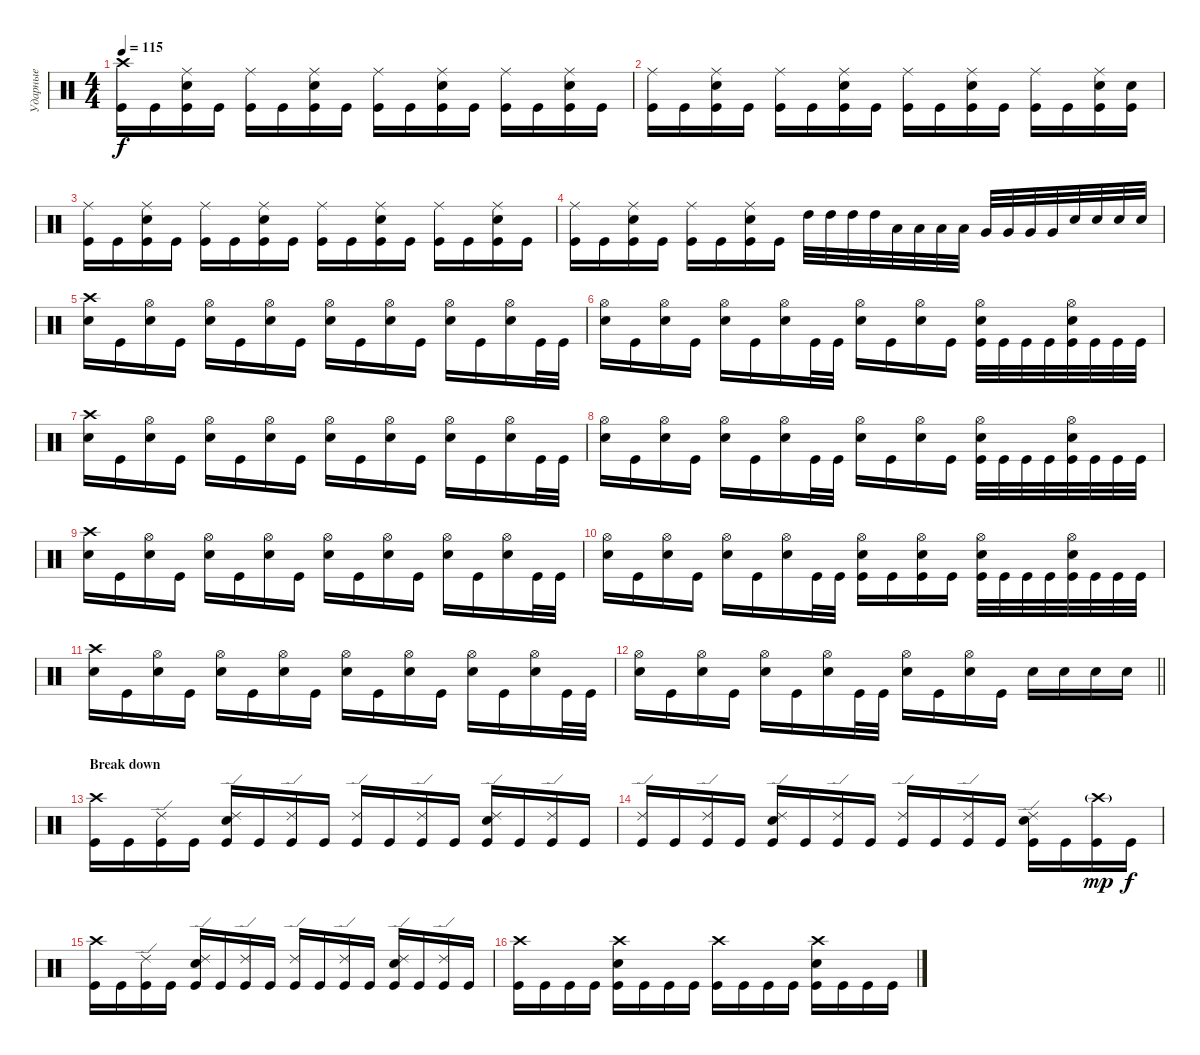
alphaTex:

\track ("Ударные" "Ударные") {instrument percussion}
\staff {score}
\articulation defaults
\ts (4 4)
\tempo 115
\clef neutral
\ks c
("Crash high (hit)" "Kick (hit)").16{dy f} "Kick (hit)".16 ("Ride (middle)" "Snare (hit) 2" "Kick (hit)").16 "Kick (hit)".16 ("Ride (middle)" "Kick (hit)").16 "Kick (hit)".16 ("Ride (middle)" "Snare (hit) 2" "Kick (hit)").16 "Kick (hit)".16 ("Ride (middle)" "Kick (hit)").16 "Kick (hit)".16 ("Ride (middle)" "Snare (hit) 2" "Kick (hit)").16 "Kick (hit)".16 ("Ride (middle)" "Kick (hit)").16 "Kick (hit)".16 ("Ride (middle)" "Snare (hit) 2" "Kick (hit)").16 "Kick (hit)".16 |
("Ride (middle)" "Kick (hit)").16 "Kick (hit)".16 ("Ride (middle)" "Snare (hit) 2" "Kick (hit)").16 "Kick (hit)".16 ("Ride (middle)" "Kick (hit)").16 "Kick (hit)".16 ("Ride (middle)" "Snare (hit) 2" "Kick (hit)").16 "Kick (hit)".16 ("Ride (middle)" "Kick (hit)").16 "Kick (hit)".16 ("Ride (middle)" "Snare (hit) 2" "Kick (hit)").16 "Kick (hit)".16 ("Ride (middle)" "Kick (hit)").16 "Kick (hit)".16 ("Ride (middle)" "Snare (hit) 2" "Kick (hit)").16 ("Snare (hit) 2" "Kick (hit)").16 |
("Ride (middle)" "Kick (hit)").16 "Kick (hit)".16 ("Ride (middle)" "Snare (hit) 2" "Kick (hit)").16 "Kick (hit)".16 ("Ride (middle)" "Kick (hit)").16 "Kick (hit)".16 ("Ride (middle)" "Snare (hit) 2" "Kick (hit)").16 "Kick (hit)".16 ("Ride (middle)" "Kick (hit)").16 "Kick (hit)".16 ("Ride (middle)" "Snare (hit) 2" "Kick (hit)").16 "Kick (hit)".16 ("Ride (middle)" "Kick (hit)").16 "Kick (hit)".16 ("Ride (middle)" "Snare (hit) 2" "Kick (hit)").16 "Kick (hit)".16 |
("Ride (middle)" "Kick (hit)").16 "Kick (hit)".16 ("Ride (middle)" "Snare (hit) 2" "Kick (hit)").16 "Kick (hit)".16 ("Ride (middle)" "Kick (hit)").16 "Kick (hit)".16 ("Ride (middle)" "Snare (hit) 2" "Kick (hit)").16 "Kick (hit)".16 "High Tom (hit)".32 "High Tom (hit)".32 "High Tom (hit)".32 "High Tom (hit)".32 "Low Tom (hit)".32 "Low Tom (hit)".32 "Low Tom (hit)".32 "Low Tom (hit)".32 "Very Low Tom (hit)".32 "Very Low Tom (hit)".32 "Very Low Tom (hit)".32 "Very Low Tom (hit)".32 "Snare (hit) 2".32 "Snare (hit) 2".32 "Snare (hit) 2".32 "Snare (hit) 2".32 |
("Crash high (hit)" "Snare (hit) 2").16 "Kick (hit)".16 ("Hi-Hat (open)" "Snare (hit) 2").16 "Kick (hit)".16 ("Hi-Hat (open)" "Snare (hit) 2").16 "Kick (hit)".16 ("Hi-Hat (open)" "Snare (hit) 2").16 "Kick (hit)".16 ("Hi-Hat (open)" "Snare (hit) 2").16 "Kick (hit)".16 ("Hi-Hat (open)" "Snare (hit) 2").16 "Kick (hit)".16 ("Hi-Hat (open)" "Snare (hit) 2").16 "Kick (hit)".16 ("Hi-Hat (open)" "Snare (hit) 2").16 "Kick (hit)".32 "Kick (hit)".32 |
("Hi-Hat (open)" "Snare (hit) 2").16 "Kick (hit)".16 ("Hi-Hat (open)" "Snare (hit) 2").16 "Kick (hit)".16 ("Hi-Hat (open)" "Snare (hit) 2").16 "Kick (hit)".16 ("Hi-Hat (open)" "Snare (hit) 2").16 "Kick (hit)".32 "Kick (hit)".32 ("Hi-Hat (open)" "Snare (hit) 2").16 "Kick (hit)".16 ("Hi-Hat (open)" "Snare (hit) 2").16 "Kick (hit)".16 ("Hi-Hat (open)" "Snare (hit) 2" "Kick (hit)").32 "Kick (hit)".32 "Kick (hit)".32 "Kick (hit)".32 ("Hi-Hat (open)" "Snare (hit) 2" "Kick (hit)").32 "Kick (hit)".32 "Kick (hit)".32 "Kick (hit)".32 |
("Crash high (hit)" "Snare (hit) 2").16 "Kick (hit)".16 ("Hi-Hat (open)" "Snare (hit) 2").16 "Kick (hit)".16 ("Hi-Hat (open)" "Snare (hit) 2").16 "Kick (hit)".16 ("Hi-Hat (open)" "Snare (hit) 2").16 "Kick (hit)".16 ("Hi-Hat (open)" "Snare (hit) 2").16 "Kick (hit)".16 ("Hi-Hat (open)" "Snare (hit) 2").16 "Kick (hit)".16 ("Hi-Hat (open)" "Snare (hit) 2").16 "Kick (hit)".16 ("Hi-Hat (open)" "Snare (hit) 2").16 "Kick (hit)".32 "Kick (hit)".32 |
("Hi-Hat (open)" "Snare (hit) 2").16 "Kick (hit)".16 ("Hi-Hat (open)" "Snare (hit) 2").16 "Kick (hit)".16 ("Hi-Hat (open)" "Snare (hit) 2").16 "Kick (hit)".16 ("Hi-Hat (open)" "Snare (hit) 2").16 "Kick (hit)".32 "Kick (hit)".32 ("Hi-Hat (open)" "Snare (hit) 2").16 "Kick (hit)".16 ("Hi-Hat (open)" "Snare (hit) 2").16 "Kick (hit)".16 ("Hi-Hat (open)" "Snare (hit) 2" "Kick (hit)").32 "Kick (hit)".32 "Kick (hit)".32 "Kick (hit)".32 ("Hi-Hat (open)" "Snare (hit) 2" "Kick (hit)").32 "Kick (hit)".32 "Kick (hit)".32 "Kick (hit)".32 |
("Crash high (hit)" "Snare (hit) 2").16 "Kick (hit)".16 ("Hi-Hat (open)" "Snare (hit) 2").16 "Kick (hit)".16 ("Hi-Hat (open)" "Snare (hit) 2").16 "Kick (hit)".16 ("Hi-Hat (open)" "Snare (hit) 2").16 "Kick (hit)".16 ("Hi-Hat (open)" "Snare (hit) 2").16 "Kick (hit)".16 ("Hi-Hat (open)" "Snare (hit) 2").16 "Kick (hit)".16 ("Hi-Hat (open)" "Snare (hit) 2").16 "Kick (hit)".16 ("Hi-Hat (open)" "Snare (hit) 2").16 "Kick (hit)".32 "Kick (hit)".32 |
("Hi-Hat (open)" "Snare (hit) 2").16 "Kick (hit)".16 ("Hi-Hat (open)" "Snare (hit) 2").16 "Kick (hit)".16 ("Hi-Hat (open)" "Snare (hit) 2").16 "Kick (hit)".16 ("Hi-Hat (open)" "Snare (hit) 2").16 "Kick (hit)".32 "Kick (hit)".32 ("Hi-Hat (open)" "Snare (hit) 2" "Kick (hit)").16 "Kick (hit)".16 ("Hi-Hat (open)" "Snare (hit) 2" "Kick (hit)").16 "Kick (hit)".16 ("Hi-Hat (open)" "Snare (hit) 2" "Kick (hit)").32 "Kick (hit)".32 "Kick (hit)".32 "Kick (hit)".32 ("Hi-Hat (open)" "Snare (hit) 2" "Kick (hit)").32 "Kick (hit)".32 "Kick (hit)".32 "Kick (hit)".32 |
("Crash high (hit)" "Snare (hit) 2").16 "Kick (hit)".16 ("Hi-Hat (open)" "Snare (hit) 2").16 "Kick (hit)".16 ("Hi-Hat (open)" "Snare (hit) 2").16 "Kick (hit)".16 ("Hi-Hat (open)" "Snare (hit) 2").16 "Kick (hit)".16 ("Hi-Hat (open)" "Snare (hit) 2").16 "Kick (hit)".16 ("Hi-Hat (open)" "Snare (hit) 2").16 "Kick (hit)".16 ("Hi-Hat (open)" "Snare (hit) 2").16 "Kick (hit)".16 ("Hi-Hat (open)" "Snare (hit) 2").16 "Kick (hit)".32 "Kick (hit)".32 |
\barLineRight lightlight
("Hi-Hat (open)" "Snare (hit) 2").16 "Kick (hit)".16 ("Hi-Hat (open)" "Snare (hit) 2").16 "Kick (hit)".16 ("Hi-Hat (open)" "Snare (hit) 2").16 "Kick (hit)".16 ("Hi-Hat (open)" "Snare (hit) 2").16 "Kick (hit)".32 "Kick (hit)".32 ("Hi-Hat (open)" "Snare (hit) 2").16 "Kick (hit)".16 ("Hi-Hat (open)" "Snare (hit) 2").16 "Kick (hit)".16 "Snare (hit) 2".16 "Snare (hit) 2".16 "Snare (hit) 2".16 "Snare (hit) 2".16 |
\section ("" "Break down")
("Crash high (hit)" "Kick (hit)").16 "Kick (hit)".16 ("Ride (edge) 2" "Kick (hit)").16 "Kick (hit)".16 ("Ride (edge) 2" "Snare (hit) 2" "Kick (hit)").16 "Kick (hit)".16 ("Ride (edge) 2" "Kick (hit)").16 "Kick (hit)".16 ("Ride (edge) 2" "Kick (hit)").16 "Kick (hit)".16 ("Ride (edge) 2" "Kick (hit)").16 "Kick (hit)".16 ("Ride (edge) 2" "Snare (hit) 2" "Kick (hit)").16 "Kick (hit)".16 ("Ride (edge) 2" "Kick (hit)").16 "Kick (hit)".16 |
("Ride (edge) 2" "Kick (hit)").16 "Kick (hit)".16 ("Ride (edge) 2" "Kick (hit)").16 "Kick (hit)".16 ("Ride (edge) 2" "Snare (hit) 2" "Kick (hit)").16 "Kick (hit)".16 ("Ride (edge) 2" "Kick (hit)").16 "Kick (hit)".16 ("Ride (edge) 2" "Kick (hit)").16 "Kick (hit)".16 ("Ride (edge) 2" "Kick (hit)").16 "Kick (hit)".16 ("Ride (edge) 2" "Snare (hit) 2" "Kick (hit)").16 "Kick (hit)".16 ("Crash high (hit)"{g} "Kick (hit)").16{dy mp} "Kick (hit)".16{dy f} |
("Crash high (hit)" "Kick (hit)").16 "Kick (hit)".16 ("Ride (edge) 2" "Kick (hit)").16 "Kick (hit)".16 ("Ride (edge) 2" "Snare (hit) 2" "Kick (hit)").16 "Kick (hit)".16 ("Ride (edge) 2" "Kick (hit)").16 "Kick (hit)".16 ("Ride (edge) 2" "Kick (hit)").16 "Kick (hit)".16 ("Ride (edge) 2" "Kick (hit)").16 "Kick (hit)".16 ("Ride (edge) 2" "Snare (hit) 2" "Kick (hit)").16 "Kick (hit)".16 ("Ride (edge) 2" "Kick (hit)").16 "Kick (hit)".16 |
("Crash high (hit)" "Kick (hit)").16 "Kick (hit)".16 "Kick (hit)".16 "Kick (hit)".16 ("Crash high (hit)" "Snare (hit) 2" "Kick (hit)").16 "Kick (hit)".16 "Kick (hit)".16 "Kick (hit)".16 ("Crash high (hit)" "Kick (hit)").16 "Kick (hit)".16 "Kick (hit)".16 "Kick (hit)".16 ("Crash high (hit)" "Snare (hit) 2" "Kick (hit)").16 "Kick (hit)".16 "Kick (hit)".16 "Kick (hit)".16
